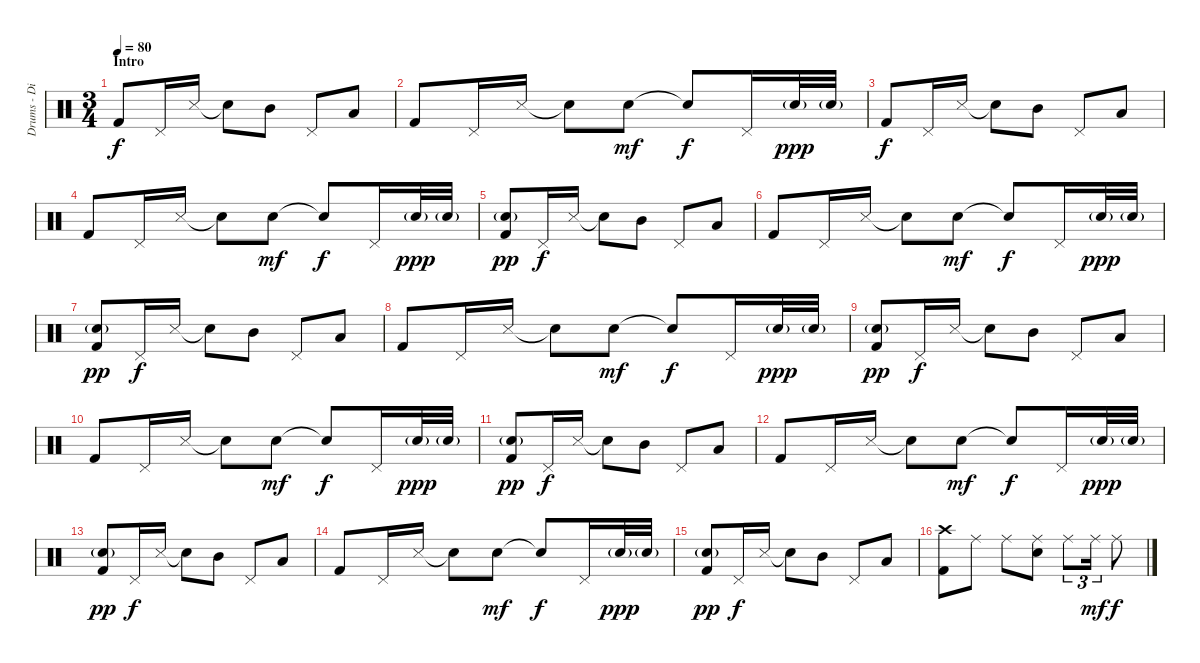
\track ("Drums - Dino Campanella" "Drums - Di") {instrument percussion}
\staff {score}
\articulation defaults
\ts (3 4)
\section ("" "Intro")
\tempo 80
\clef neutral
\ks c "Kick (hit) 2".8{dy f volume 0} "Pedal Hi-Hat (hit)".16 "Snare (side stick) 3".16 "Snare (hit)"{t}.8{volume 4} "Mid Tom (hit)".8 "Pedal Hi-Hat (hit)".8 "Low Tom (hit)".8
|
"Kick (hit) 2".8 "Pedal Hi-Hat (hit)".16 "Snare (side stick) 3".16 "Snare (hit)"{t}.8 "Electric Snare (hit)".8{dy mf} "Snare (hit)"{t}.8{dy f} "Pedal Hi-Hat (hit)".16 "Electric Snare (hit)"{g}.32{dy ppp} "Electric Snare (hit)"{g}.32 |
"Kick (hit) 2".8{dy f volume 8} "Pedal Hi-Hat (hit)".16 "Snare (side stick) 3".16 "Snare (hit)"{t}.8 "Mid Tom (hit)".8 "Pedal Hi-Hat (hit)".8 "Low Tom (hit)".8 |
"Kick (hit) 2".8 "Pedal Hi-Hat (hit)".16 "Snare (side stick) 3".16 "Snare (hit)"{t}.8 "Electric Snare (hit)".8{dy mf} "Snare (hit)"{t}.8{dy f} "Pedal Hi-Hat (hit)".16 "Electric Snare (hit)"{g}.32{dy ppp} "Electric Snare (hit)"{g}.32 |
("Electric Snare (hit)"{g} "Kick (hit) 2").8{dy pp volume 11} "Pedal Hi-Hat (hit)".16{dy f} "Snare (side stick) 3".16 "Snare (hit)"{t}.8 "Mid Tom (hit)".8 "Pedal Hi-Hat (hit)".8 "Low Tom (hit)".8 |
"Kick (hit) 2".8 "Pedal Hi-Hat (hit)".16 "Snare (side stick) 3".16 "Snare (hit)"{t}.8 "Electric Snare (hit)".8{dy mf} "Snare (hit)"{t}.8{dy f} "Pedal Hi-Hat (hit)".16 "Electric Snare (hit)"{g}.32{dy ppp} "Electric Snare (hit)"{g}.32 |
("Electric Snare (hit)"{g} "Kick (hit) 2").8{dy pp volume 14} "Pedal Hi-Hat (hit)".16{dy f} "Snare (side stick) 3".16 "Snare (hit)"{t}.8 "Mid Tom (hit)".8 "Pedal Hi-Hat (hit)".8 "Low Tom (hit)".8 |
"Kick (hit) 2".8 "Pedal Hi-Hat (hit)".16 "Snare (side stick) 3".16 "Snare (hit)"{t}.8 "Electric Snare (hit)".8{dy mf} "Snare (hit)"{t}.8{dy f} "Pedal Hi-Hat (hit)".16 "Electric Snare (hit)"{g}.32{dy ppp} "Electric Snare (hit)"{g}.32 |
("Electric Snare (hit)"{g} "Kick (hit) 2").8{dy pp volume 16} "Pedal Hi-Hat (hit)".16{dy f} "Snare (side stick) 3".16 "Snare (hit)"{t}.8 "Mid Tom (hit)".8 "Pedal Hi-Hat (hit)".8 "Low Tom (hit)".8 |
"Kick (hit) 2".8 "Pedal Hi-Hat (hit)".16 "Snare (side stick) 3".16 "Snare (hit)"{t}.8 "Electric Snare (hit)".8{dy mf} "Snare (hit)"{t}.8{dy f} "Pedal Hi-Hat (hit)".16 "Electric Snare (hit)"{g}.32{dy ppp} "Electric Snare (hit)"{g}.32 |
("Electric Snare (hit)"{g} "Kick (hit) 2").8{dy pp} "Pedal Hi-Hat (hit)".16{dy f} "Snare (side stick) 3".16 "Snare (hit)"{t}.8 "Mid Tom (hit)".8 "Pedal Hi-Hat (hit)".8 "Low Tom (hit)".8 |
"Kick (hit) 2".8 "Pedal Hi-Hat (hit)".16 "Snare (side stick) 3".16 "Snare (hit)"{t}.8 "Electric Snare (hit)".8{dy mf} "Snare (hit)"{t}.8{dy f} "Pedal Hi-Hat (hit)".16 "Electric Snare (hit)"{g}.32{dy ppp} "Electric Snare (hit)"{g}.32 |
("Electric Snare (hit)"{g} "Kick (hit) 2").8{dy pp} "Pedal Hi-Hat (hit)".16{dy f} "Snare (side stick) 3".16 "Snare (hit)"{t}.8 "Mid Tom (hit)".8 "Pedal Hi-Hat (hit)".8 "Low Tom (hit)".8 |
"Kick (hit) 2".8 "Pedal Hi-Hat (hit)".16 "Snare (side stick) 3".16 "Snare (hit)"{t}.8 "Electric Snare (hit)".8{dy mf} "Snare (hit)"{t}.8{dy f} "Pedal Hi-Hat (hit)".16 "Electric Snare (hit)"{g}.32{dy ppp} "Electric Snare (hit)"{g}.32 |
("Electric Snare (hit)"{g} "Kick (hit) 2").8{dy pp} "Pedal Hi-Hat (hit)".16{dy f} "Snare (side stick) 3".16 "Snare (hit)"{t}.8 "Mid Tom (hit)".8 "Pedal Hi-Hat (hit)".8 "Low Tom (hit)".8 |
("Crash high (hit)" "Kick (hit) 2").8 "Ride (middle)".8 "Ride (middle)".8 ("Ride (middle)" "Electric Snare (hit)").8 "Ride (middle)".8{tu (3 2)} "Ride (middle)".16{tu (3 2) dy mf} "Ride (middle)".8{dy f}
